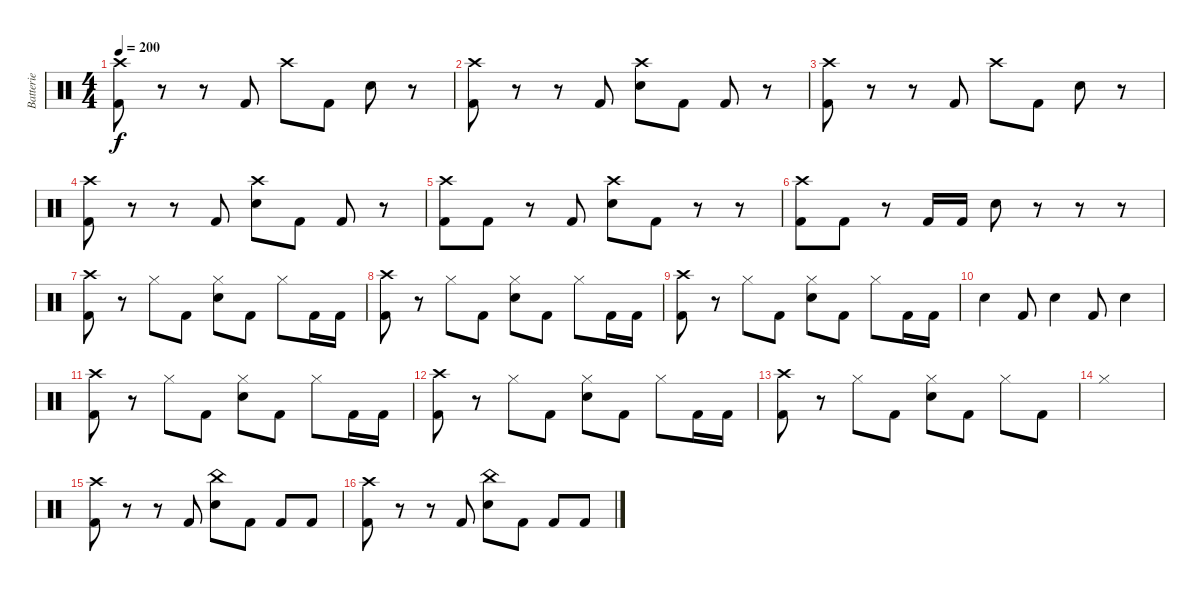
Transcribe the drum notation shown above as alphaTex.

\track ("Batterie" "Batterie") {instrument percussion}
\staff {score}
\articulation defaults
\ts (4 4)
\tempo 200
\clef neutral
\ks c
("Crash high (hit)" "Kick (hit) 2").8{dy f} r.8 r.8 "Kick (hit) 2".8 "Crash high (hit)".8 "Kick (hit) 2".8 "Electric Snare (hit)".8 r.8 |
("Crash high (hit)" "Kick (hit) 2").8 r.8 r.8 "Kick (hit) 2".8 ("Crash high (hit)" "Electric Snare (hit)").8 "Kick (hit) 2".8 "Kick (hit) 2".8 r.8 |
("Crash high (hit)" "Kick (hit) 2").8 r.8 r.8 "Kick (hit) 2".8 "Crash high (hit)".8 "Kick (hit) 2".8 "Electric Snare (hit)".8 r.8 |
("Crash high (hit)" "Kick (hit) 2").8 r.8 r.8 "Kick (hit) 2".8 ("Crash high (hit)" "Electric Snare (hit)").8 "Kick (hit) 2".8 "Kick (hit) 2".8 r.8 |
("Crash high (hit)" "Kick (hit) 2").8 "Kick (hit) 2".8 r.8 "Kick (hit) 2".8 ("Crash high (hit)" "Electric Snare (hit)").8 "Kick (hit) 2".8 r.8 r.8 |
("Crash high (hit)" "Kick (hit) 2").8 "Kick (hit) 2".8 r.8 "Kick (hit) 2".16 "Kick (hit) 2".16 "Electric Snare (hit)".8 r.8 r.8 r.8 |
("Crash high (hit)" "Kick (hit) 2").8 r.8 "Hi-Hat (closed)".8 "Kick (hit) 2".8 ("Hi-Hat (closed)" "Electric Snare (hit)").8 "Kick (hit) 2".8 "Hi-Hat (closed)".8 "Kick (hit) 2".16 "Kick (hit) 2".16 |
("Crash high (hit)" "Kick (hit) 2").8 r.8 "Hi-Hat (closed)".8 "Kick (hit) 2".8 ("Hi-Hat (closed)" "Electric Snare (hit)").8 "Kick (hit) 2".8 "Hi-Hat (closed)".8 "Kick (hit) 2".16 "Kick (hit) 2".16 |
("Crash high (hit)" "Kick (hit) 2").8 r.8 "Hi-Hat (closed)".8 "Kick (hit) 2".8 ("Hi-Hat (closed)" "Electric Snare (hit)").8 "Kick (hit) 2".8 "Hi-Hat (closed)".8 "Kick (hit) 2".16 "Kick (hit) 2".16 |
"Electric Snare (hit)".4 "Kick (hit) 2".8 "Electric Snare (hit)".4 "Kick (hit) 2".8 "Electric Snare (hit)".4 |
("Crash high (hit)" "Kick (hit) 2").8 r.8 "Hi-Hat (closed)".8 "Kick (hit) 2".8 ("Hi-Hat (closed)" "Electric Snare (hit)").8 "Kick (hit) 2".8 "Hi-Hat (closed)".8 "Kick (hit) 2".16 "Kick (hit) 2".16 |
("Crash high (hit)" "Kick (hit) 2").8 r.8 "Hi-Hat (closed)".8 "Kick (hit) 2".8 ("Hi-Hat (closed)" "Electric Snare (hit)").8 "Kick (hit) 2".8 "Hi-Hat (closed)".8 "Kick (hit) 2".16 "Kick (hit) 2".16 |
("Crash high (hit)" "Kick (hit) 2").8 r.8 "Hi-Hat (closed)".8 "Kick (hit) 2".8 ("Hi-Hat (closed)" "Electric Snare (hit)").8 "Kick (hit) 2".8 "Hi-Hat (closed)".8 "Kick (hit) 2".8 |
"Hi-Hat (closed)".1 |
("Crash high (hit)" "Kick (hit) 2").8 r.8 r.8 "Kick (hit) 2".8 ("China (hit)" "Electric Snare (hit)").8 "Kick (hit) 2".8 "Kick (hit) 2".8 "Kick (hit) 2".8 |
("Crash high (hit)" "Kick (hit) 2").8 r.8 r.8 "Kick (hit) 2".8 ("China (hit)" "Electric Snare (hit)").8 "Kick (hit) 2".8 "Kick (hit) 2".8 "Kick (hit) 2".8
